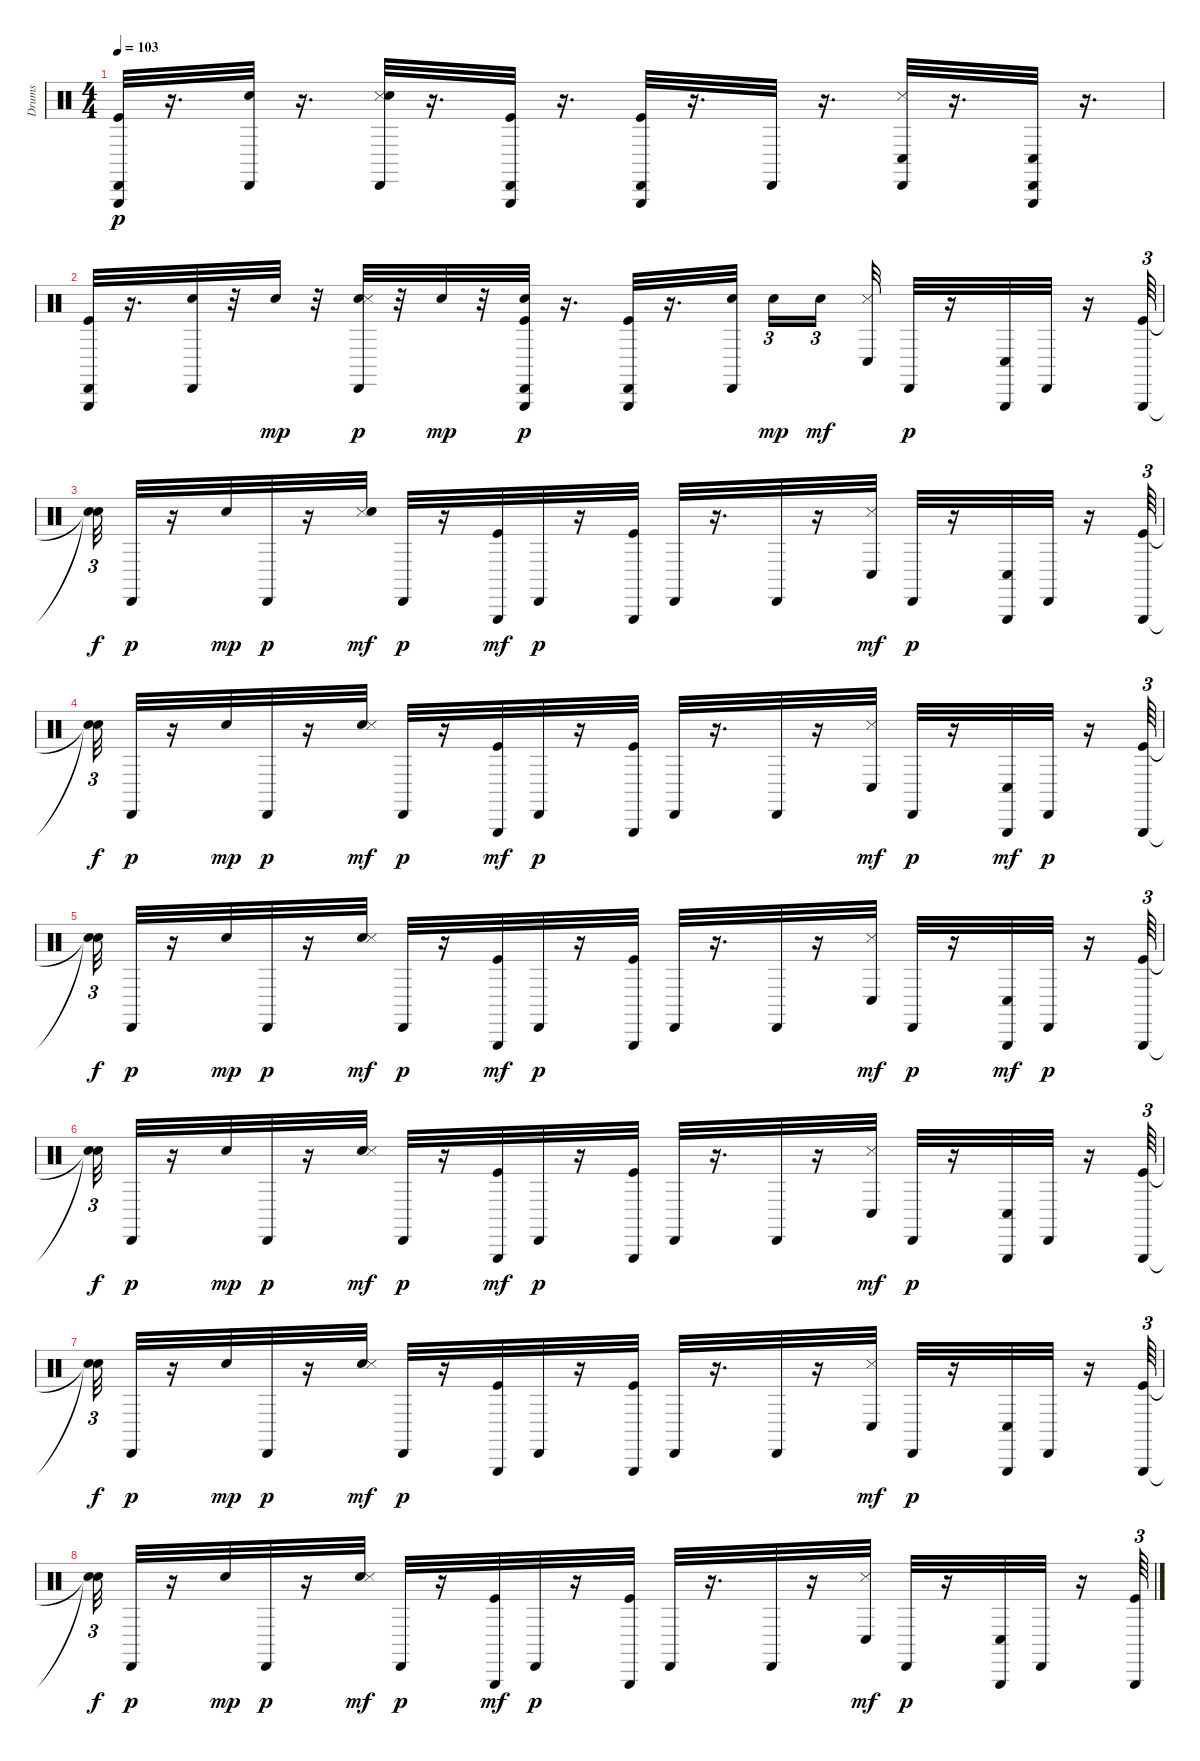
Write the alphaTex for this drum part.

\track ("Drums" "Drums") {instrument percussion}
\staff {score}
\articulation defaults
\ts (4 4)
\tempo 103
\clef neutral
\ks c
("Triangle (hit)" "Kick (hit)" "Cabasa (hit)").32{dy p} r.16{d} ("Snare (hit) 2" "Cabasa (hit)").32 r.16{d} ("Snare (side stick) 3" "Snare (hit) 2" "Cabasa (hit)").32 r.16{d} ("Kick (hit)" "Triangle (hit)" "Cabasa (hit)").32 r.16{d} ("Triangle (hit)" "Kick (hit)" "Cabasa (hit)").32 r.16{d} "Cabasa (hit)".32 r.16{d} ("Snare (side stick) 3" "Conga low (hit)" "Cabasa (hit)").32 r.16{d} ("Triangle (hit)" "Conga low (hit)" "Cabasa (hit)").32 r.16{d} |
("Triangle (hit)" "Kick (hit)" "Cabasa (hit)").32 r.16{d} ("Snare (hit) 2" "Cabasa (hit)").32 r.32 "Snare (hit) 2".32{dy mp} r.32 ("Snare (hit) 2" "Snare (side stick) 3" "Cabasa (hit)").32{dy p} r.32 "Snare (hit) 2".32{dy mp} r.32 ("Kick (hit)" "Snare (hit) 2" "Triangle (hit)" "Cabasa (hit)").32{dy p} r.16{d} ("Kick (hit)" "Triangle (hit)" "Cabasa (hit)").32 r.16{d} ("Snare (hit) 2" "Cabasa (hit)").32 "Snare (hit) 2".16{tu (3 2) dy mp} "Snare (hit) 2".16{tu (3 2) dy mf} ("Snare (side stick) 3" "Conga low (hit)").32 "Cabasa (hit)".32{dy p} r.16 ("Conga low (hit)" "Triangle (hit)").32 "Cabasa (hit)".32 r.16 ("Triangle (hit)" "Kick (hit)").64{tu (3 2)} |
("Snare (hit)"{t} "Snare (hit)"{t}).32{tu (3 2) dy f} "Cabasa (hit)".32{dy p} r.16 "Snare (hit) 2".32{dy mp} "Cabasa (hit)".32{dy p} r.16 ("Snare (side stick) 3" "Snare (hit) 2").32{dy mf} "Cabasa (hit)".32{dy p} r.16 ("Triangle (hit)" "Kick (hit)").32{dy mf} "Cabasa (hit)".32{dy p} r.16 ("Triangle (hit)" "Kick (hit)").32 "Cabasa (hit)".32 r.16{d} "Cabasa (hit)".32 r.16 ("Snare (side stick) 3" "Conga low (hit)").32{dy mf} "Cabasa (hit)".32{dy p} r.16 ("Conga low (hit)" "Triangle (hit)").32 "Cabasa (hit)".32 r.16 ("Kick (hit)" "Triangle (hit)").64{tu (3 2)} |
("Snare (hit)"{t} "Snare (hit)"{t}).32{tu (3 2) dy f} "Cabasa (hit)".32{dy p} r.16 "Snare (hit) 2".32{dy mp} "Cabasa (hit)".32{dy p} r.16 ("Snare (hit) 2" "Snare (side stick) 3").32{dy mf} "Cabasa (hit)".32{dy p} r.16 ("Triangle (hit)" "Kick (hit)").32{dy mf} "Cabasa (hit)".32{dy p} r.16 ("Kick (hit)" "Triangle (hit)").32 "Cabasa (hit)".32 r.16{d} "Cabasa (hit)".32 r.16 ("Conga low (hit)" "Snare (side stick) 3").32{dy mf} "Cabasa (hit)".32{dy p} r.16 ("Triangle (hit)" "Conga low (hit)").32{dy mf} "Cabasa (hit)".32{dy p} r.16 ("Kick (hit)" "Triangle (hit)").64{tu (3 2)} |
("Snare (hit)"{t} "Snare (hit)"{t}).32{tu (3 2) dy f} "Cabasa (hit)".32{dy p} r.16 "Snare (hit) 2".32{dy mp} "Cabasa (hit)".32{dy p} r.16 ("Snare (hit) 2" "Snare (side stick) 3").32{dy mf} "Cabasa (hit)".32{dy p} r.16 ("Triangle (hit)" "Kick (hit)").32{dy mf} "Cabasa (hit)".32{dy p} r.16 ("Triangle (hit)" "Kick (hit)").32 "Cabasa (hit)".32 r.16{d} "Cabasa (hit)".32 r.16 ("Conga low (hit)" "Snare (side stick) 3").32{dy mf} "Cabasa (hit)".32{dy p} r.16 ("Triangle (hit)" "Conga low (hit)").32{dy mf} "Cabasa (hit)".32{dy p} r.16 ("Triangle (hit)" "Kick (hit)").64{tu (3 2)} |
("Snare (hit)"{t} "Snare (hit)"{t}).32{tu (3 2) dy f} "Cabasa (hit)".32{dy p} r.16 "Snare (hit) 2".32{dy mp} "Cabasa (hit)".32{dy p} r.16 ("Snare (hit) 2" "Snare (side stick) 3").32{dy mf} "Cabasa (hit)".32{dy p} r.16 ("Triangle (hit)" "Kick (hit)").32{dy mf} "Cabasa (hit)".32{dy p} r.16 ("Triangle (hit)" "Kick (hit)").32 "Cabasa (hit)".32 r.16{d} "Cabasa (hit)".32 r.16 ("Snare (side stick) 3" "Conga low (hit)").32{dy mf} "Cabasa (hit)".32{dy p} r.16 ("Conga low (hit)" "Triangle (hit)").32 "Cabasa (hit)".32 r.16 ("Kick (hit)" "Triangle (hit)").64{tu (3 2)} |
("Snare (hit)"{t} "Snare (hit)"{t}).32{tu (3 2) dy f} "Cabasa (hit)".32{dy p} r.16 "Snare (hit) 2".32{dy mp} "Cabasa (hit)".32{dy p} r.16 ("Snare (hit) 2" "Snare (side stick) 3").32{dy mf} "Cabasa (hit)".32{dy p} r.16 ("Kick (hit)" "Triangle (hit)").32 "Cabasa (hit)".32 r.16 ("Triangle (hit)" "Kick (hit)").32 "Cabasa (hit)".32 r.16{d} "Cabasa (hit)".32 r.16 ("Snare (side stick) 3" "Conga low (hit)").32{dy mf} "Cabasa (hit)".32{dy p} r.16 ("Conga low (hit)" "Triangle (hit)").32 "Cabasa (hit)".32 r.16 ("Triangle (hit)" "Kick (hit)").64{tu (3 2)} |
("Snare (hit)"{t} "Snare (hit)"{t}).32{tu (3 2) dy f} "Cabasa (hit)".32{dy p} r.16 "Snare (hit) 2".32{dy mp} "Cabasa (hit)".32{dy p} r.16 ("Snare (hit) 2" "Snare (side stick) 3").32{dy mf} "Cabasa (hit)".32{dy p} r.16 ("Triangle (hit)" "Kick (hit)").32{dy mf} "Cabasa (hit)".32{dy p} r.16 ("Kick (hit)" "Triangle (hit)").32 "Cabasa (hit)".32 r.16{d} "Cabasa (hit)".32 r.16 ("Snare (side stick) 3" "Conga low (hit)").32{dy mf} "Cabasa (hit)".32{dy p} r.16 ("Conga low (hit)" "Triangle (hit)").32 "Cabasa (hit)".32 r.16 ("Triangle (hit)" "Kick (hit)").64{tu (3 2)}
